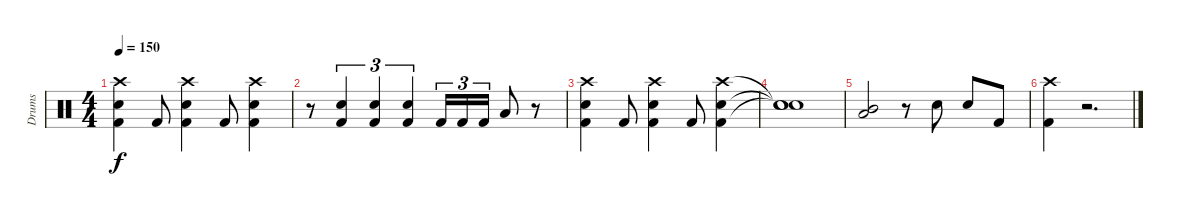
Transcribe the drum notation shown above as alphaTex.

\track ("Drums" "Drums") {instrument percussion}
\staff {score}
\articulation defaults
\ts (4 4)
\tempo 150
\clef neutral
\ks c
("Crash high (hit)" "Snare (hit) 2" "Kick (hit) 2").4{dy f} "Kick (hit) 2".8 ("Crash high (hit)" "Snare (hit) 2" "Kick (hit) 2").4 "Kick (hit) 2".8 ("Crash high (hit)" "Snare (hit) 2" "Kick (hit) 2").4 |
r.8 ("Snare (hit) 2" "Kick (hit) 2").4{tu (3 2)} ("Snare (hit) 2" "Kick (hit) 2").4{tu (3 2)} ("Snare (hit) 2" "Kick (hit) 2").4{tu (3 2)} "Kick (hit) 2".16{tu (3 2)} "Kick (hit) 2".16{tu (3 2)} "Kick (hit) 2".16{tu (3 2)} "Low Tom (hit)".8 r.8 |
("Crash high (hit)" "Snare (hit) 2" "Kick (hit) 2").4 "Kick (hit) 2".8 ("Crash high (hit)" "Snare (hit) 2" "Kick (hit) 2").4 "Kick (hit) 2".8 ("Crash high (hit)" "Snare (hit) 2" "Kick (hit) 2").4 |
("Snare (hit)"{t} "Snare (hit)"{t} "Snare (hit)"{t}).1 |
("Low Tom (hit)" "Mid Tom (hit)").2 r.8 "Snare (hit) 2".8 "Snare (hit) 2".8 "Kick (hit) 2".8 |
("Crash high (hit)" "Kick (hit) 2").4 r.2{d}
